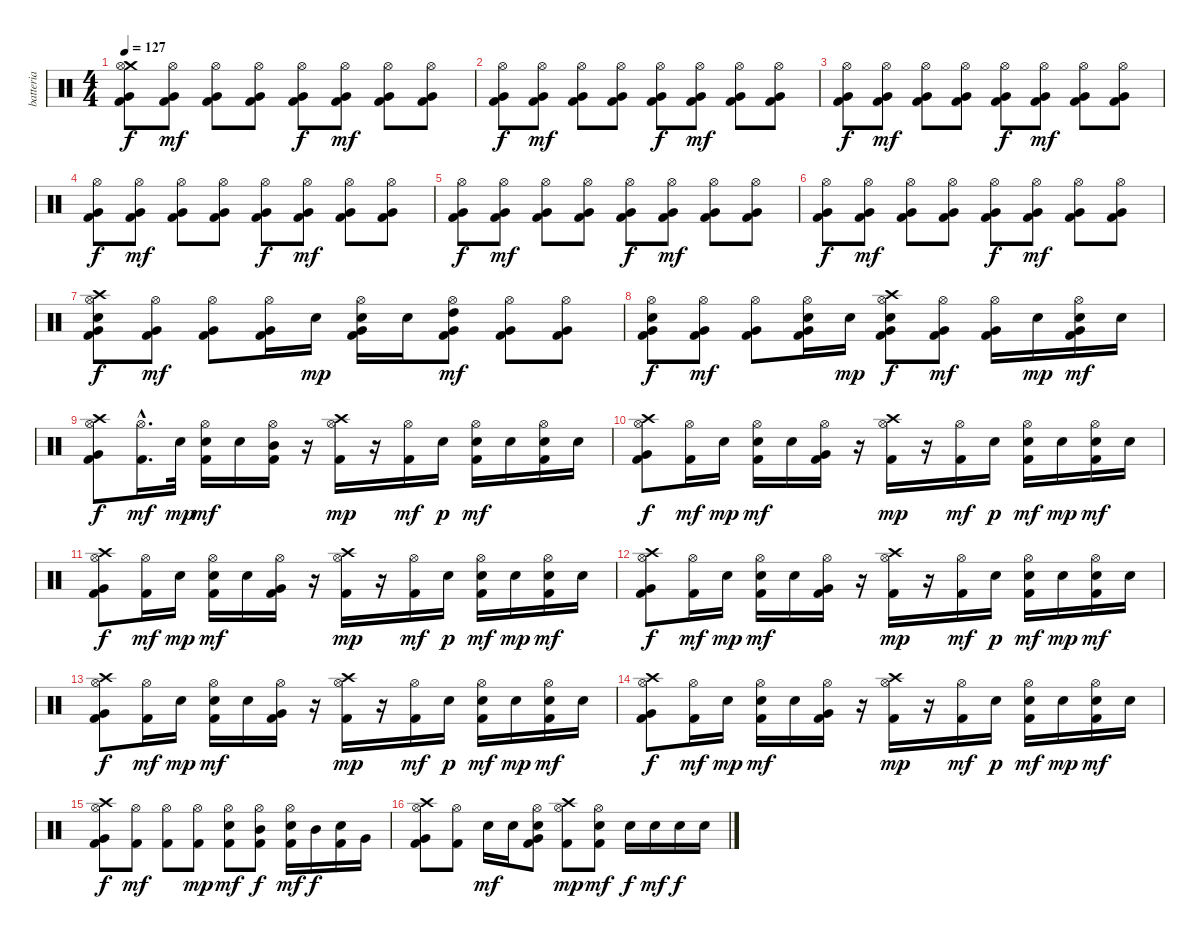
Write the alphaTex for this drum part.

\track ("batteria" "batteria") {instrument percussion}
\staff {score}
\articulation defaults
\ts (4 4)
\tempo 127
\clef neutral
\ks c
("Crash medium (hit)" "Hi-Hat (open)" "Very Low Tom (hit)" "Kick (hit) 2").8{dy f} ("Hi-Hat (open)" "Very Low Tom (hit)" "Kick (hit) 2").8{dy mf} ("Hi-Hat (open)" "Very Low Tom (hit)" "Kick (hit) 2").8 ("Hi-Hat (open)" "Very Low Tom (hit)" "Kick (hit) 2").8 ("Hi-Hat (open)" "Very Low Tom (hit)" "Kick (hit) 2").8{dy f} ("Hi-Hat (open)" "Very Low Tom (hit)" "Kick (hit) 2").8{dy mf} ("Hi-Hat (open)" "Very Low Tom (hit)" "Kick (hit) 2").8 ("Hi-Hat (open)" "Very Low Tom (hit)" "Kick (hit) 2").8 |
("Hi-Hat (open)" "Very Low Tom (hit)" "Kick (hit) 2").8{dy f} ("Hi-Hat (open)" "Very Low Tom (hit)" "Kick (hit) 2").8{dy mf} ("Hi-Hat (open)" "Very Low Tom (hit)" "Kick (hit) 2").8 ("Hi-Hat (open)" "Very Low Tom (hit)" "Kick (hit) 2").8 ("Hi-Hat (open)" "Very Low Tom (hit)" "Kick (hit) 2").8{dy f} ("Hi-Hat (open)" "Very Low Tom (hit)" "Kick (hit) 2").8{dy mf} ("Hi-Hat (open)" "Very Low Tom (hit)" "Kick (hit) 2").8 ("Hi-Hat (open)" "Very Low Tom (hit)" "Kick (hit) 2").8 |
("Hi-Hat (open)" "Very Low Tom (hit)" "Kick (hit) 2").8{dy f} ("Hi-Hat (open)" "Very Low Tom (hit)" "Kick (hit) 2").8{dy mf} ("Hi-Hat (open)" "Very Low Tom (hit)" "Kick (hit) 2").8 ("Hi-Hat (open)" "Very Low Tom (hit)" "Kick (hit) 2").8 ("Hi-Hat (open)" "Very Low Tom (hit)" "Kick (hit) 2").8{dy f} ("Hi-Hat (open)" "Very Low Tom (hit)" "Kick (hit) 2").8{dy mf} ("Hi-Hat (open)" "Very Low Tom (hit)" "Kick (hit) 2").8 ("Hi-Hat (open)" "Very Low Tom (hit)" "Kick (hit) 2").8 |
("Hi-Hat (open)" "Very Low Tom (hit)" "Kick (hit) 2").8{dy f} ("Hi-Hat (open)" "Very Low Tom (hit)" "Kick (hit) 2").8{dy mf} ("Hi-Hat (open)" "Very Low Tom (hit)" "Kick (hit) 2").8 ("Hi-Hat (open)" "Very Low Tom (hit)" "Kick (hit) 2").8 ("Hi-Hat (open)" "Very Low Tom (hit)" "Kick (hit) 2").8{dy f} ("Hi-Hat (open)" "Very Low Tom (hit)" "Kick (hit) 2").8{dy mf} ("Hi-Hat (open)" "Very Low Tom (hit)" "Kick (hit) 2").8 ("Hi-Hat (open)" "Very Low Tom (hit)" "Kick (hit) 2").8 |
("Hi-Hat (open)" "Very Low Tom (hit)" "Kick (hit) 2").8{dy f} ("Hi-Hat (open)" "Very Low Tom (hit)" "Kick (hit) 2").8{dy mf} ("Hi-Hat (open)" "Very Low Tom (hit)" "Kick (hit) 2").8 ("Hi-Hat (open)" "Very Low Tom (hit)" "Kick (hit) 2").8 ("Hi-Hat (open)" "Very Low Tom (hit)" "Kick (hit) 2").8{dy f} ("Hi-Hat (open)" "Very Low Tom (hit)" "Kick (hit) 2").8{dy mf} ("Hi-Hat (open)" "Very Low Tom (hit)" "Kick (hit) 2").8 ("Hi-Hat (open)" "Very Low Tom (hit)" "Kick (hit) 2").8 |
("Hi-Hat (open)" "Very Low Tom (hit)" "Kick (hit) 2").8{dy f} ("Hi-Hat (open)" "Very Low Tom (hit)" "Kick (hit) 2").8{dy mf} ("Hi-Hat (open)" "Very Low Tom (hit)" "Kick (hit) 2").8 ("Hi-Hat (open)" "Very Low Tom (hit)" "Kick (hit) 2").8 ("Hi-Hat (open)" "Very Low Tom (hit)" "Kick (hit) 2").8{dy f} ("Hi-Hat (open)" "Very Low Tom (hit)" "Kick (hit) 2").8{dy mf} ("Hi-Hat (open)" "Very Low Tom (hit)" "Kick (hit) 2").8 ("Hi-Hat (open)" "Very Low Tom (hit)" "Kick (hit) 2").8 |
("Electric Snare (hit)" "Crash high (hit)" "Hi-Hat (open)" "Very Low Tom (hit)" "Kick (hit) 2").8{dy f} ("Hi-Hat (open)" "Very Low Tom (hit)" "Kick (hit) 2").8{dy mf} ("Hi-Hat (open)" "Very Low Tom (hit)" "Kick (hit) 2").8 ("Hi-Hat (open)" "Very Low Tom (hit)" "Kick (hit) 2").16 "Electric Snare (hit)".16{dy mp} ("Electric Snare (hit)" "Hi-Hat (open)" "Very Low Tom (hit)" "Kick (hit) 2").16 "Electric Snare (hit)".16 ("High Tom (hit)" "Hi-Hat (open)" "Very Low Tom (hit)" "Kick (hit) 2").8{dy mf} ("Hi-Hat (open)" "Very Low Tom (hit)" "Kick (hit) 2").8 ("Hi-Hat (open)" "Very Low Tom (hit)" "Kick (hit) 2").8 |
("Electric Snare (hit)" "Hi-Hat (open)" "Very Low Tom (hit)" "Kick (hit) 2").8{dy f} ("Hi-Hat (open)" "Very Low Tom (hit)" "Kick (hit) 2").8{dy mf} ("Hi-Hat (open)" "Very Low Tom (hit)" "Kick (hit) 2").8 ("Electric Snare (hit)" "Hi-Hat (open)" "Very Low Tom (hit)" "Kick (hit) 2").16 "Electric Snare (hit)".16{dy mp} ("Crash high (hit)" "Electric Snare (hit)" "Hi-Hat (open)" "Very Low Tom (hit)" "Kick (hit) 2").8{dy f} ("Hi-Hat (open)" "Very Low Tom (hit)" "Kick (hit) 2").8{dy mf} ("Hi-Hat (open)" "Very Low Tom (hit)" "Kick (hit) 2").16 "Electric Snare (hit)".16{dy mp} ("Electric Snare (hit)" "Hi-Hat (open)" "Very Low Tom (hit)" "Kick (hit) 2").16{dy mf} "Electric Snare (hit)".16 |
("Crash high (hit)" "Hi-Hat (open)" "Very Low Tom (hit)" "Kick (hit) 2").8{dy f} ("Hi-Hat (open)"{hac} "Kick (hit) 2"{hac}).16{d dy mf} "Electric Snare (hit)".32{dy mp} ("Electric Snare (hit)" "Hi-Hat (open)" "Kick (hit) 2").16{dy mf} "Electric Snare (hit)".16 ("Mid Tom (hit)" "Hi-Hat (open)" "Kick (hit) 2").16 r.16 ("Crash high (hit)" "Hi-Hat (open)" "Kick (hit) 2").16{dy mp} r.16 ("Hi-Hat (open)" "Kick (hit) 2").16{dy mf} "Electric Snare (hit)".16{dy p} ("Electric Snare (hit)" "Hi-Hat (open)" "Kick (hit) 2").16{dy mf} "Electric Snare (hit)".16 ("Electric Snare (hit)" "Hi-Hat (open)" "Kick (hit) 2").16 "Electric Snare (hit)".16 |
("Crash high (hit)" "Hi-Hat (open)" "Very Low Tom (hit)" "Kick (hit) 2").8{dy f} ("Hi-Hat (open)" "Kick (hit) 2").16{dy mf} "Electric Snare (hit)".16{dy mp} ("Electric Snare (hit)" "Hi-Hat (open)" "Kick (hit) 2").16{dy mf} "Electric Snare (hit)".16 ("Hi-Hat (open)" "Very Low Tom (hit)" "Kick (hit) 2").16 r.16 ("Crash high (hit)" "Hi-Hat (open)" "Kick (hit) 2").16{dy mp} r.16 ("Hi-Hat (open)" "Kick (hit) 2").16{dy mf} "Electric Snare (hit)".16{dy p} ("Electric Snare (hit)" "Hi-Hat (open)" "Kick (hit) 2").16{dy mf} "Electric Snare (hit)".16{dy mp} ("Electric Snare (hit)" "Hi-Hat (open)" "Kick (hit) 2").16{dy mf} "Electric Snare (hit)".16 |
("Crash high (hit)" "Hi-Hat (open)" "Very Low Tom (hit)" "Kick (hit) 2").8{dy f} ("Hi-Hat (open)" "Kick (hit) 2").16{dy mf} "Electric Snare (hit)".16{dy mp} ("Electric Snare (hit)" "Hi-Hat (open)" "Kick (hit) 2").16{dy mf} "Electric Snare (hit)".16 ("Hi-Hat (open)" "Very Low Tom (hit)" "Kick (hit) 2").16 r.16 ("Crash high (hit)" "Hi-Hat (open)" "Kick (hit) 2").16{dy mp} r.16 ("Hi-Hat (open)" "Kick (hit) 2").16{dy mf} "Electric Snare (hit)".16{dy p} ("Electric Snare (hit)" "Hi-Hat (open)" "Kick (hit) 2").16{dy mf} "Electric Snare (hit)".16{dy mp} ("Electric Snare (hit)" "Hi-Hat (open)" "Kick (hit) 2").16{dy mf} "Electric Snare (hit)".16 |
("Crash high (hit)" "Hi-Hat (open)" "Very Low Tom (hit)" "Kick (hit) 2").8{dy f} ("Hi-Hat (open)" "Kick (hit) 2").16{dy mf} "Electric Snare (hit)".16{dy mp} ("Electric Snare (hit)" "Hi-Hat (open)" "Kick (hit) 2").16{dy mf} "Electric Snare (hit)".16 ("Hi-Hat (open)" "Very Low Tom (hit)" "Kick (hit) 2").16 r.16 ("Crash high (hit)" "Hi-Hat (open)" "Kick (hit) 2").16{dy mp} r.16 ("Hi-Hat (open)" "Kick (hit) 2").16{dy mf} "Electric Snare (hit)".16{dy p} ("Electric Snare (hit)" "Hi-Hat (open)" "Kick (hit) 2").16{dy mf} "Electric Snare (hit)".16{dy mp} ("Electric Snare (hit)" "Hi-Hat (open)" "Kick (hit) 2").16{dy mf} "Electric Snare (hit)".16 |
("Crash high (hit)" "Hi-Hat (open)" "Very Low Tom (hit)" "Kick (hit) 2").8{dy f} ("Hi-Hat (open)" "Kick (hit) 2").16{dy mf} "Electric Snare (hit)".16{dy mp} ("Electric Snare (hit)" "Hi-Hat (open)" "Kick (hit) 2").16{dy mf} "Electric Snare (hit)".16 ("Hi-Hat (open)" "Very Low Tom (hit)" "Kick (hit) 2").16 r.16 ("Crash high (hit)" "Hi-Hat (open)" "Kick (hit) 2").16{dy mp} r.16 ("Hi-Hat (open)" "Kick (hit) 2").16{dy mf} "Electric Snare (hit)".16{dy p} ("Electric Snare (hit)" "Hi-Hat (open)" "Kick (hit) 2").16{dy mf} "Electric Snare (hit)".16{dy mp} ("Electric Snare (hit)" "Hi-Hat (open)" "Kick (hit) 2").16{dy mf} "Electric Snare (hit)".16 |
("Crash high (hit)" "Hi-Hat (open)" "Very Low Tom (hit)" "Kick (hit) 2").8{dy f} ("Hi-Hat (open)" "Kick (hit) 2").16{dy mf} "Electric Snare (hit)".16{dy mp} ("Electric Snare (hit)" "Hi-Hat (open)" "Kick (hit) 2").16{dy mf} "Electric Snare (hit)".16 ("Hi-Hat (open)" "Very Low Tom (hit)" "Kick (hit) 2").16 r.16 ("Crash high (hit)" "Hi-Hat (open)" "Kick (hit) 2").16{dy mp} r.16 ("Hi-Hat (open)" "Kick (hit) 2").16{dy mf} "Electric Snare (hit)".16{dy p} ("Electric Snare (hit)" "Hi-Hat (open)" "Kick (hit) 2").16{dy mf} "Electric Snare (hit)".16{dy mp} ("Electric Snare (hit)" "Hi-Hat (open)" "Kick (hit) 2").16{dy mf} "Electric Snare (hit)".16 |
("Crash high (hit)" "Hi-Hat (open)" "Very Low Tom (hit)" "Kick (hit) 2").8{dy f} ("Hi-Hat (open)" "Kick (hit) 2").8{dy mf} ("Hi-Hat (open)" "Kick (hit) 2").8 ("Hi-Hat (open)" "Kick (hit) 2").8{dy mp} ("Electric Snare (hit)" "Hi-Hat (open)" "Kick (hit) 2").8{dy mf} ("Hi-Hat (open)" "Mid Tom (hit)" "Kick (hit) 2").8{dy f} ("Electric Snare (hit)" "Hi-Hat (open)" "Kick (hit) 2").16{dy mf} "Mid Tom (hit)".16{dy f} ("Electric Snare (hit)" "Kick (hit) 2").16 "Very Low Tom (hit)".16 |
("Crash high (hit)" "Hi-Hat (open)" "Very Low Tom (hit)" "Kick (hit) 2").8 ("Hi-Hat (open)" "Kick (hit) 2").8 "Electric Snare (hit)".16{dy mf} "Electric Snare (hit)".16 ("Electric Snare (hit)" "Hi-Hat (open)" "Very Low Tom (hit)" "Kick (hit) 2").8 ("Crash high (hit)" "Hi-Hat (open)" "Kick (hit) 2").8{dy mp} ("Electric Snare (hit)" "Hi-Hat (open)" "Kick (hit) 2").8{dy mf} "Electric Snare (hit)".16{dy f} "Electric Snare (hit)".16{dy mf} "Electric Snare (hit)".16{dy f} "Electric Snare (hit)".16
